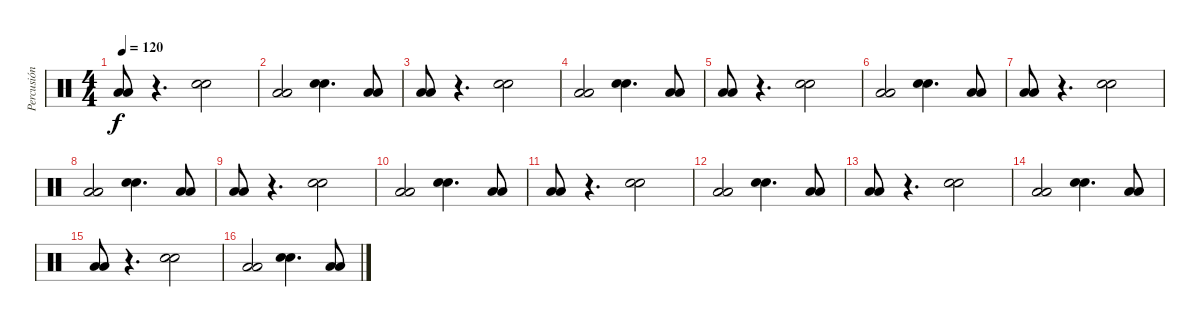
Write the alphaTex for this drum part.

\track ("Percusión" "Percusión") {instrument percussion}
\staff {score}
\articulation defaults
\ts (4 4)
\tempo 120
\clef neutral
\ks c
("Low Floor Tom (hit)" "Low Floor Tom (hit)").8{dy f} r.4{d} ("Electric Snare (hit)" "Electric Snare (hit)").2 |
("Low Floor Tom (hit)" "Low Floor Tom (hit)").2 ("Electric Snare (hit)" "Electric Snare (hit)").4{d} ("Low Floor Tom (hit)" "Low Floor Tom (hit)").8 |
("Low Floor Tom (hit)" "Low Floor Tom (hit)").8 r.4{d} ("Electric Snare (hit)" "Electric Snare (hit)").2 |
("Low Floor Tom (hit)" "Low Floor Tom (hit)").2 ("Electric Snare (hit)" "Electric Snare (hit)").4{d} ("Low Floor Tom (hit)" "Low Floor Tom (hit)").8 |
("Low Floor Tom (hit)" "Low Floor Tom (hit)").8 r.4{d} ("Electric Snare (hit)" "Electric Snare (hit)").2 |
("Low Floor Tom (hit)" "Low Floor Tom (hit)").2 ("Electric Snare (hit)" "Electric Snare (hit)").4{d} ("Low Floor Tom (hit)" "Low Floor Tom (hit)").8 |
("Low Floor Tom (hit)" "Low Floor Tom (hit)").8 r.4{d} ("Electric Snare (hit)" "Electric Snare (hit)").2 |
("Low Floor Tom (hit)" "Low Floor Tom (hit)").2 ("Electric Snare (hit)" "Electric Snare (hit)").4{d} ("Low Floor Tom (hit)" "Low Floor Tom (hit)").8 |
("Low Floor Tom (hit)" "Low Floor Tom (hit)").8 r.4{d} ("Electric Snare (hit)" "Electric Snare (hit)").2 |
("Low Floor Tom (hit)" "Low Floor Tom (hit)").2 ("Electric Snare (hit)" "Electric Snare (hit)").4{d} ("Low Floor Tom (hit)" "Low Floor Tom (hit)").8 |
("Low Floor Tom (hit)" "Low Floor Tom (hit)").8 r.4{d} ("Electric Snare (hit)" "Electric Snare (hit)").2 |
("Low Floor Tom (hit)" "Low Floor Tom (hit)").2 ("Electric Snare (hit)" "Electric Snare (hit)").4{d} ("Low Floor Tom (hit)" "Low Floor Tom (hit)").8 |
("Low Floor Tom (hit)" "Low Floor Tom (hit)").8 r.4{d} ("Electric Snare (hit)" "Electric Snare (hit)").2 |
("Low Floor Tom (hit)" "Low Floor Tom (hit)").2 ("Electric Snare (hit)" "Electric Snare (hit)").4{d} ("Low Floor Tom (hit)" "Low Floor Tom (hit)").8 |
("Low Floor Tom (hit)" "Low Floor Tom (hit)").8 r.4{d} ("Electric Snare (hit)" "Electric Snare (hit)").2 |
("Low Floor Tom (hit)" "Low Floor Tom (hit)").2 ("Electric Snare (hit)" "Electric Snare (hit)").4{d} ("Low Floor Tom (hit)" "Low Floor Tom (hit)").8
